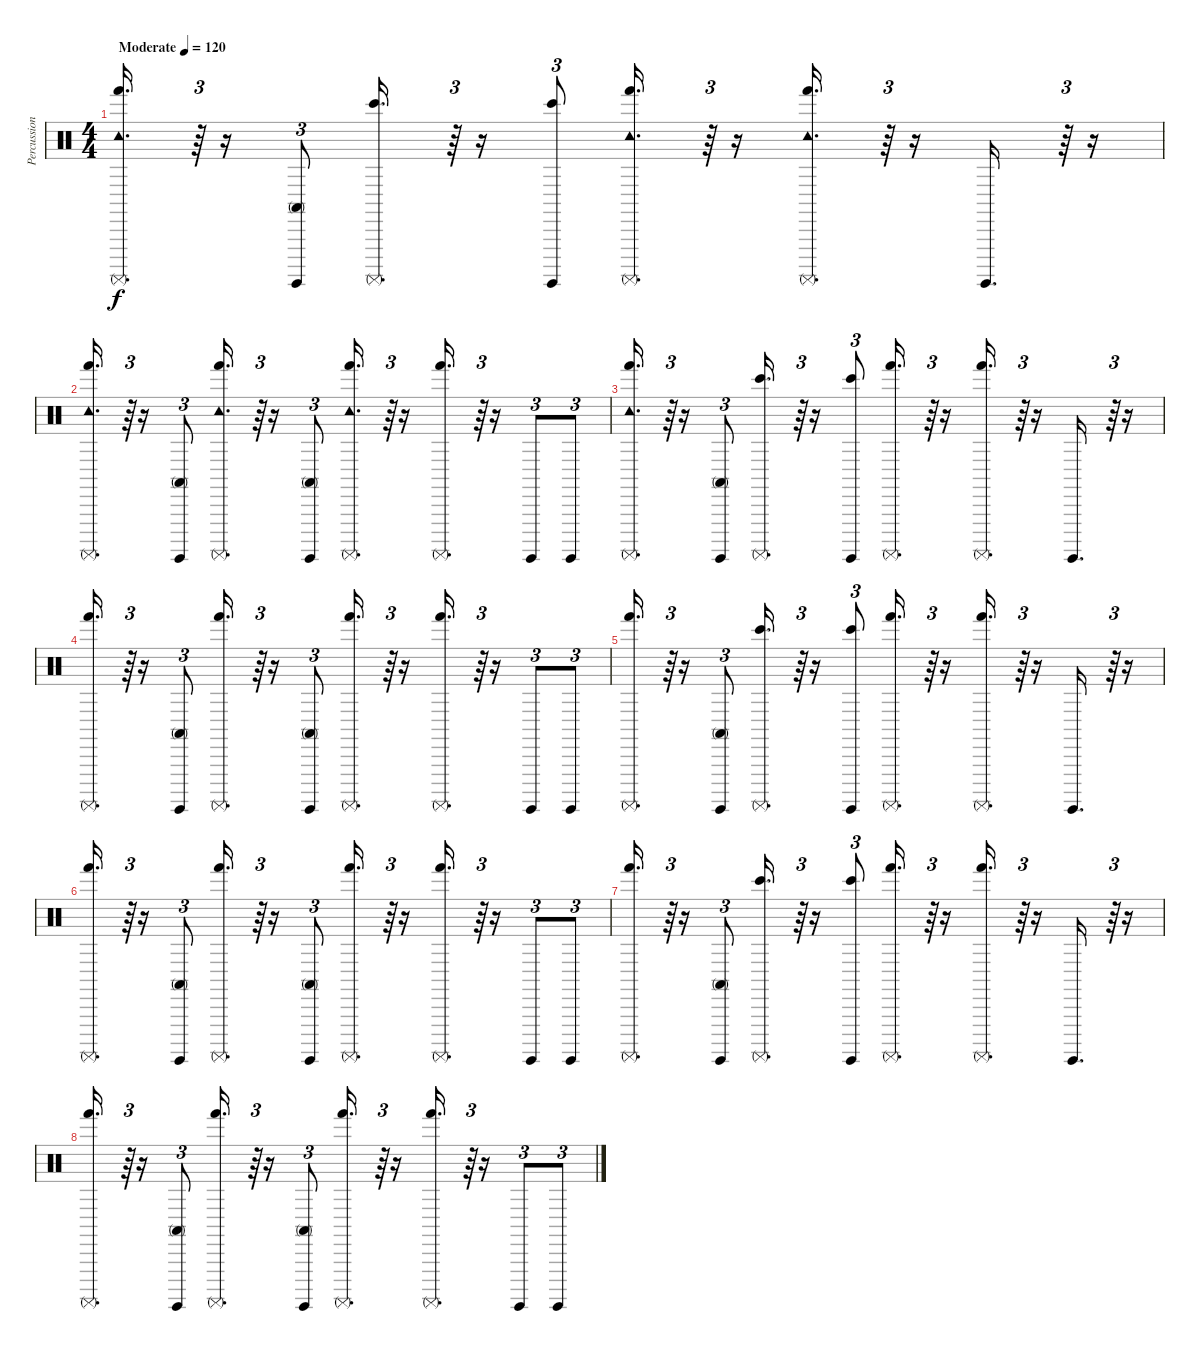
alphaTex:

\track ("Percussion" "Percussion") {instrument percussion}
\staff {score}
\articulation defaults
\ts (4 4)
\tempo (120 "Moderate")
\clef neutral
\ks c
("Tambourine (hit)" "Hand (hit)" "Surdo (mute)").16{d dy f} r.64{tu (3 2)} r.16 ("Conga high (mute)" "Surdo (hit)").8{tu (3 2)} ("Bongo High (hit)" "Surdo (mute)").16{d} r.64{tu (3 2)} r.16 ("Bongo High (hit)" "Surdo (hit)").8{tu (3 2)} ("Tambourine (hit)" "Hand (hit)" "Surdo (mute)").16{d} r.64{tu (3 2)} r.16 ("Tambourine (hit)" "Hand (hit)" "Surdo (mute)").16{d} r.64{tu (3 2)} r.16 "Surdo (hit)".16{d} r.64{tu (3 2)} r.16 |
("Tambourine (hit)" "Hand (hit)" "Surdo (mute)").16{d} r.64{tu (3 2)} r.16 ("Conga high (mute)" "Surdo (hit)").8{tu (3 2)} ("Tambourine (hit)" "Hand (hit)" "Surdo (mute)").16{d} r.64{tu (3 2)} r.16 ("Conga high (mute)" "Surdo (hit)").8{tu (3 2)} ("Tambourine (hit)" "Hand (hit)" "Surdo (mute)").16{d} r.64{tu (3 2)} r.16 ("Hand (hit)" "Surdo (mute)").16{d} r.64{tu (3 2)} r.16 "Surdo (hit)".8{tu (3 2)} "Surdo (hit)".8{tu (3 2)} |
("Tambourine (hit)" "Hand (hit)" "Surdo (mute)").16{d} r.64{tu (3 2)} r.16 ("Conga high (mute)" "Surdo (hit)").8{tu (3 2)} ("Bongo High (hit)" "Surdo (mute)").16{d} r.64{tu (3 2)} r.16 ("Bongo High (hit)" "Surdo (hit)").8{tu (3 2)} ("Hand (hit)" "Surdo (mute)").16{d} r.64{tu (3 2)} r.16 ("Hand (hit)" "Surdo (mute)").16{d} r.64{tu (3 2)} r.16 "Surdo (hit)".16{d} r.64{tu (3 2)} r.16 |
("Hand (hit)" "Surdo (mute)").16{d} r.64{tu (3 2)} r.16 ("Conga high (mute)" "Surdo (hit)").8{tu (3 2)} ("Hand (hit)" "Surdo (mute)").16{d} r.64{tu (3 2)} r.16 ("Conga high (mute)" "Surdo (hit)").8{tu (3 2)} ("Hand (hit)" "Surdo (mute)").16{d} r.64{tu (3 2)} r.16 ("Hand (hit)" "Surdo (mute)").16{d} r.64{tu (3 2)} r.16 "Surdo (hit)".8{tu (3 2)} "Surdo (hit)".8{tu (3 2)} |
("Hand (hit)" "Surdo (mute)").16{d} r.64{tu (3 2)} r.16 ("Conga high (mute)" "Surdo (hit)").8{tu (3 2)} ("Bongo High (hit)" "Surdo (mute)").16{d} r.64{tu (3 2)} r.16 ("Bongo High (hit)" "Surdo (hit)").8{tu (3 2)} ("Hand (hit)" "Surdo (mute)").16{d} r.64{tu (3 2)} r.16 ("Hand (hit)" "Surdo (mute)").16{d} r.64{tu (3 2)} r.16 "Surdo (hit)".16{d} r.64{tu (3 2)} r.16 |
("Hand (hit)" "Surdo (mute)").16{d} r.64{tu (3 2)} r.16 ("Conga high (mute)" "Surdo (hit)").8{tu (3 2)} ("Hand (hit)" "Surdo (mute)").16{d} r.64{tu (3 2)} r.16 ("Conga high (mute)" "Surdo (hit)").8{tu (3 2)} ("Hand (hit)" "Surdo (mute)").16{d} r.64{tu (3 2)} r.16 ("Hand (hit)" "Surdo (mute)").16{d} r.64{tu (3 2)} r.16 "Surdo (hit)".8{tu (3 2)} "Surdo (hit)".8{tu (3 2)} |
("Hand (hit)" "Surdo (mute)").16{d} r.64{tu (3 2)} r.16 ("Conga high (mute)" "Surdo (hit)").8{tu (3 2)} ("Bongo High (hit)" "Surdo (mute)").16{d} r.64{tu (3 2)} r.16 ("Bongo High (hit)" "Surdo (hit)").8{tu (3 2)} ("Hand (hit)" "Surdo (mute)").16{d} r.64{tu (3 2)} r.16 ("Hand (hit)" "Surdo (mute)").16{d} r.64{tu (3 2)} r.16 "Surdo (hit)".16{d} r.64{tu (3 2)} r.16 |
("Hand (hit)" "Surdo (mute)").16{d} r.64{tu (3 2)} r.16 ("Conga high (mute)" "Surdo (hit)").8{tu (3 2)} ("Hand (hit)" "Surdo (mute)").16{d} r.64{tu (3 2)} r.16 ("Conga high (mute)" "Surdo (hit)").8{tu (3 2)} ("Hand (hit)" "Surdo (mute)").16{d} r.64{tu (3 2)} r.16 ("Hand (hit)" "Surdo (mute)").16{d} r.64{tu (3 2)} r.16 "Surdo (hit)".8{tu (3 2)} "Surdo (hit)".8{tu (3 2)}
